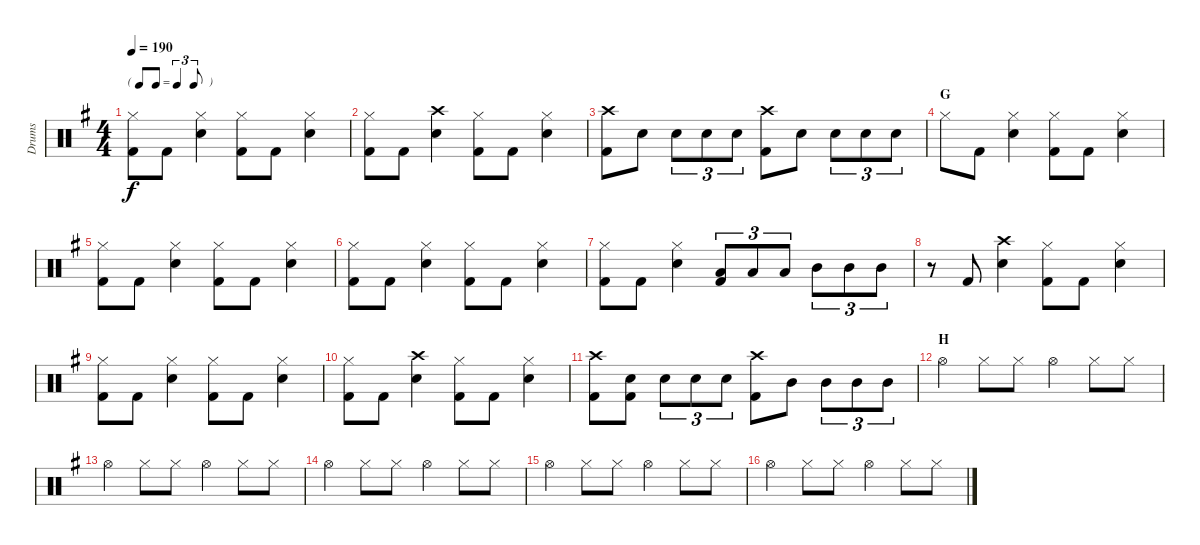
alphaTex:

\track ("Drums" "Drums") {instrument percussion}
\staff {score}
\articulation defaults
\ts (4 4)
\tf triplet8th
\tempo 190
\clef neutral
\ks g
("Hi-Hat (closed)" "Kick (hit) 2").8{dy f} "Kick (hit) 2".8 ("Hi-Hat (closed)" "Snare (hit) 2").4 ("Hi-Hat (closed)" "Kick (hit) 2").8 "Kick (hit) 2".8 ("Hi-Hat (closed)" "Snare (hit) 2").4 |
("Hi-Hat (closed)" "Kick (hit) 2").8 "Kick (hit) 2".8 ("Crash high (hit)" "Snare (hit) 2").4 ("Hi-Hat (closed)" "Kick (hit) 2").8 "Kick (hit) 2".8 ("Hi-Hat (closed)" "Snare (hit) 2").4 |
("Crash high (hit)" "Kick (hit) 2").8 "Snare (hit) 2".8 "Snare (hit) 2".8{tu (3 2)} "Snare (hit) 2".8{tu (3 2)} "Snare (hit) 2".8{tu (3 2)} ("Crash high (hit)" "Kick (hit) 2").8 "Snare (hit) 2".8 "Snare (hit) 2".8{tu (3 2)} "Snare (hit) 2".8{tu (3 2)} "Snare (hit) 2".8{tu (3 2)} |
\section ("" "G")
"Hi-Hat (closed)".8 "Kick (hit) 2".8 ("Hi-Hat (closed)" "Snare (hit) 2").4 ("Hi-Hat (closed)" "Kick (hit) 2").8 "Kick (hit) 2".8 ("Hi-Hat (closed)" "Snare (hit) 2").4 |
("Hi-Hat (closed)" "Kick (hit) 2").8 "Kick (hit) 2".8 ("Hi-Hat (closed)" "Snare (hit) 2").4 ("Hi-Hat (closed)" "Kick (hit) 2").8 "Kick (hit) 2".8 ("Hi-Hat (closed)" "Snare (hit) 2").4 |
("Hi-Hat (closed)" "Kick (hit) 2").8 "Kick (hit) 2".8 ("Hi-Hat (closed)" "Snare (hit) 2").4 ("Hi-Hat (closed)" "Kick (hit) 2").8 "Kick (hit) 2".8 ("Hi-Hat (closed)" "Snare (hit) 2").4 |
("Hi-Hat (closed)" "Kick (hit) 2").8 "Kick (hit) 2".8 ("Hi-Hat (closed)" "Snare (hit) 2").4 ("Low Tom (hit)" "Kick (hit) 2").8{tu (3 2)} "Low Tom (hit)".8{tu (3 2)} "Low Tom (hit)".8{tu (3 2)} "Mid Tom (hit)".8{tu (3 2)} "Mid Tom (hit)".8{tu (3 2)} "Mid Tom (hit)".8{tu (3 2)} |
r.8 "Kick (hit) 2".8 ("Crash high (hit)" "Snare (hit) 2").4 ("Hi-Hat (closed)" "Kick (hit) 2").8 "Kick (hit) 2".8 ("Hi-Hat (closed)" "Snare (hit) 2").4 |
("Hi-Hat (closed)" "Kick (hit) 2").8 "Kick (hit) 2".8 ("Hi-Hat (closed)" "Snare (hit) 2").4 ("Hi-Hat (closed)" "Kick (hit) 2").8 "Kick (hit) 2".8 ("Hi-Hat (closed)" "Snare (hit) 2").4 |
("Hi-Hat (closed)" "Kick (hit) 2").8 "Kick (hit) 2".8 ("Crash high (hit)" "Snare (hit) 2").4 ("Hi-Hat (closed)" "Kick (hit) 2").8 "Kick (hit) 2".8 ("Hi-Hat (closed)" "Snare (hit) 2").4 |
("Crash high (hit)" "Kick (hit) 2").8 ("Snare (hit) 2" "Kick (hit) 2").8 "Snare (hit) 2".8{tu (3 2)} "Snare (hit) 2".8{tu (3 2)} "Snare (hit) 2".8{tu (3 2)} ("Crash high (hit)" "Kick (hit) 2").8 "Mid Tom (hit)".8 "Mid Tom (hit)".8{tu (3 2)} "Mid Tom (hit)".8{tu (3 2)} "Mid Tom (hit)".8{tu (3 2)} |
\section ("" "H")
"Hi-Hat (open)".4 "Hi-Hat (closed)".8 "Hi-Hat (closed)".8 "Hi-Hat (open)".4 "Hi-Hat (closed)".8 "Hi-Hat (closed)".8 |
"Hi-Hat (open)".4 "Hi-Hat (closed)".8 "Hi-Hat (closed)".8 "Hi-Hat (open)".4 "Hi-Hat (closed)".8 "Hi-Hat (closed)".8 |
"Hi-Hat (open)".4 "Hi-Hat (closed)".8 "Hi-Hat (closed)".8 "Hi-Hat (open)".4 "Hi-Hat (closed)".8 "Hi-Hat (closed)".8 |
"Hi-Hat (open)".4 "Hi-Hat (closed)".8 "Hi-Hat (closed)".8 "Hi-Hat (open)".4 "Hi-Hat (closed)".8 "Hi-Hat (closed)".8 |
"Hi-Hat (open)".4 "Hi-Hat (closed)".8 "Hi-Hat (closed)".8 "Hi-Hat (open)".4 "Hi-Hat (closed)".8 "Hi-Hat (closed)".8
